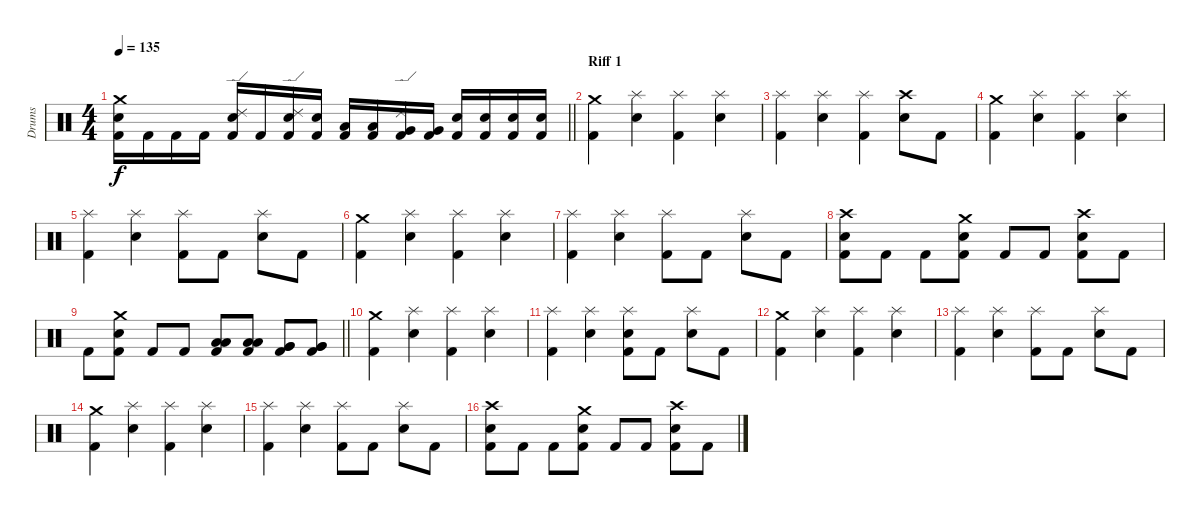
\track ("Drums" "Drums") {instrument percussion}
\staff {score}
\articulation defaults
\ts (4 4)
\tempo 135
\clef neutral
\barLineRight lightlight
\ks c
("Kick (hit) 2" "Snare (hit) 2" "Crash medium (hit)").16{dy f} "Kick (hit) 2".16 "Kick (hit) 2".16 "Kick (hit) 2".16 ("Kick (hit) 2" "Snare (hit) 2" "Ride (edge) 2").16 "Kick (hit) 2".16 ("Kick (hit) 2" "Snare (hit) 2" "Ride (edge) 2").16 ("Kick (hit) 2" "Snare (hit) 2").16 ("Kick (hit) 2" "Low Tom (hit)").16 ("Kick (hit) 2" "Low Tom (hit)").16 ("Kick (hit) 2" "Very Low Tom (hit)" "Ride (edge) 2").16 ("Kick (hit) 2" "Very Low Tom (hit)").16 ("Kick (hit) 2" "Snare (hit) 2").16 ("Kick (hit) 2" "Snare (hit) 2").16 ("Kick (hit) 2" "Snare (hit) 2").16 ("Kick (hit) 2" "Snare (hit) 2").16 |
\section ("" "Riff 1")
("Kick (hit) 2" "Crash medium (hit)").4 ("Snare (hit) 2" "Splash (hit)").4 ("Kick (hit) 2" "Splash (hit)").4 ("Snare (hit) 2" "Splash (hit)").4 |
("Kick (hit) 2" "Splash (hit)").4 ("Snare (hit) 2" "Splash (hit)").4 ("Kick (hit) 2" "Splash (hit)").4 ("Snare (hit) 2" "Crash high (hit)").8 "Kick (hit) 2".8 |
("Kick (hit) 2" "Crash medium (hit)").4 ("Snare (hit) 2" "Splash (hit)").4 ("Kick (hit) 2" "Splash (hit)").4 ("Snare (hit) 2" "Splash (hit)").4 |
("Kick (hit) 2" "Splash (hit)").4 ("Snare (hit) 2" "Splash (hit)").4 ("Kick (hit) 2" "Splash (hit)").8 "Kick (hit) 2".8 ("Snare (hit) 2" "Splash (hit)").8 "Kick (hit) 2".8 |
("Kick (hit) 2" "Crash medium (hit)").4 ("Snare (hit) 2" "Splash (hit)").4 ("Kick (hit) 2" "Splash (hit)").4 ("Snare (hit) 2" "Splash (hit)").4 |
("Kick (hit) 2" "Splash (hit)").4 ("Snare (hit) 2" "Splash (hit)").4 ("Kick (hit) 2" "Splash (hit)").8 "Kick (hit) 2".8 ("Snare (hit) 2" "Splash (hit)").8 "Kick (hit) 2".8 |
("Kick (hit) 2" "Snare (hit) 2" "Crash high (hit)").8 "Kick (hit) 2".8 "Kick (hit) 2".8 ("Kick (hit) 2" "Snare (hit) 2" "Crash medium (hit)").8 "Kick (hit) 2".8 "Kick (hit) 2".8 ("Kick (hit) 2" "Snare (hit) 2" "Crash high (hit)").8 "Kick (hit) 2".8 |
\barLineRight lightlight "Kick (hit) 2".8
("Kick (hit) 2" "Snare (hit) 2" "Crash medium (hit)").8 "Kick (hit) 2".8 "Kick (hit) 2".8 ("Kick (hit) 2" "Low Tom (hit)" "Low Tom (hit)").8 ("Kick (hit) 2" "Low Tom (hit)" "Low Tom (hit)").8 ("Kick (hit) 2" "Very Low Tom (hit)" "Very Low Tom (hit)").8 ("Kick (hit) 2" "Very Low Tom (hit)" "Very Low Tom (hit)").8 |
\section ("" "")
("Kick (hit) 2" "Crash medium (hit)").4 ("Snare (hit) 2" "Splash (hit)").4 ("Kick (hit) 2" "Splash (hit)").4 ("Snare (hit) 2" "Splash (hit)").4 |
("Kick (hit) 2" "Splash (hit)").4 ("Snare (hit) 2" "Splash (hit)").4 ("Kick (hit) 2" "Snare (hit) 2" "Splash (hit)").8 "Kick (hit) 2".8 ("Snare (hit) 2" "Splash (hit)").8 "Kick (hit) 2".8 |
("Kick (hit) 2" "Crash medium (hit)").4 ("Snare (hit) 2" "Splash (hit)").4 ("Kick (hit) 2" "Splash (hit)").4 ("Snare (hit) 2" "Splash (hit)").4 |
("Kick (hit) 2" "Splash (hit)").4 ("Snare (hit) 2" "Splash (hit)").4 ("Kick (hit) 2" "Splash (hit)").8 "Kick (hit) 2".8 ("Snare (hit) 2" "Splash (hit)").8 "Kick (hit) 2".8 |
("Kick (hit) 2" "Crash medium (hit)").4 ("Snare (hit) 2" "Splash (hit)").4 ("Kick (hit) 2" "Splash (hit)").4 ("Snare (hit) 2" "Splash (hit)").4 |
("Kick (hit) 2" "Splash (hit)").4 ("Snare (hit) 2" "Splash (hit)").4 ("Kick (hit) 2" "Splash (hit)").8 "Kick (hit) 2".8 ("Snare (hit) 2" "Splash (hit)").8 "Kick (hit) 2".8 |
("Kick (hit) 2" "Snare (hit) 2" "Crash high (hit)").8 "Kick (hit) 2".8 "Kick (hit) 2".8 ("Kick (hit) 2" "Snare (hit) 2" "Crash medium (hit)").8 "Kick (hit) 2".8 "Kick (hit) 2".8 ("Kick (hit) 2" "Snare (hit) 2" "Crash high (hit)").8 "Kick (hit) 2".8
